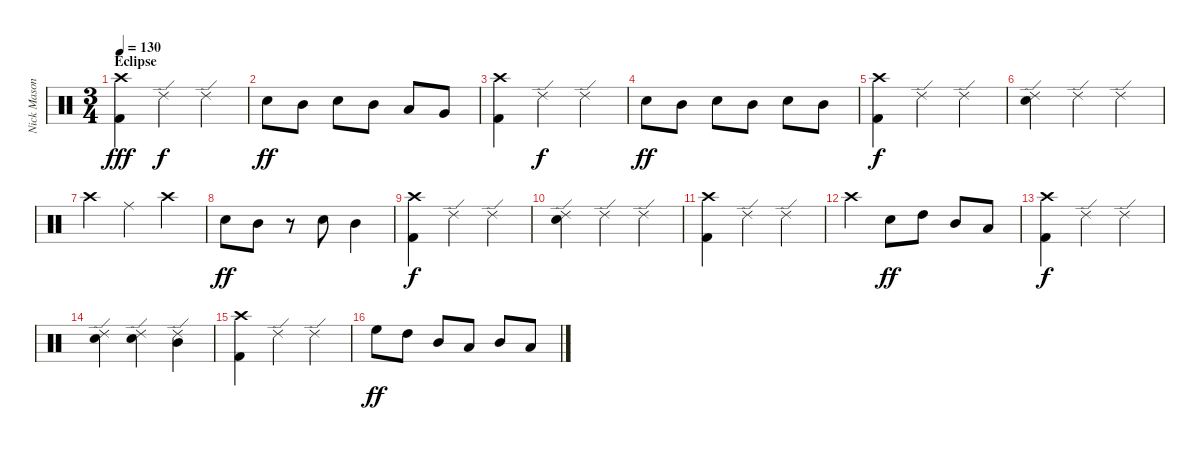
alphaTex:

\track ("Nick Mason" "Nick Mason") {instrument percussion}
\staff {score}
\articulation defaults
\ts (3 4)
\section ("" "Eclipse")
\tempo 130
\clef neutral
\ks c
("Crash high (hit)" "Kick (hit) 2").4{dy fff} "Ride (edge) 2".4{dy f} "Ride (edge) 2".4 |
"Snare (hit) 2".8{dy ff} "Mid Tom (hit)".8 "Snare (hit) 2".8 "Mid Tom (hit)".8 "Low Tom (hit)".8 "Very Low Tom (hit)".8 |
("Crash high (hit)" "Kick (hit) 2").4 "Ride (edge) 2".4{dy f} "Ride (edge) 2".4 |
"Snare (hit) 2".8{dy ff} "Mid Tom (hit)".8 "Snare (hit) 2".8 "Mid Tom (hit)".8 "Snare (hit) 2".8 "Mid Tom (hit)".8 |
("Crash high (hit)" "Kick (hit) 2").4{dy f} "Ride (edge) 2".4 "Ride (edge) 2".4 |
("Snare (hit) 2" "Ride (edge) 2").4 "Ride (edge) 2".4 "Ride (edge) 2".4 |
"Crash high (hit)".4 "Ride (middle)".4 "Crash high (hit)".4 |
"Snare (hit) 2".8{dy ff} "Mid Tom (hit)".8 r.8 "Snare (hit) 2".8 "Mid Tom (hit)".4 |
("Crash high (hit)" "Kick (hit) 2").4{dy f} "Ride (edge) 2".4 "Ride (edge) 2".4 |
("Snare (hit) 2" "Ride (edge) 2").4 "Ride (edge) 2".4 "Ride (edge) 2".4 |
("Crash high (hit)" "Kick (hit) 2").4 "Ride (edge) 2".4 "Ride (edge) 2".4 |
"Crash high (hit)".4 "Snare (hit) 2".8{dy ff} "High Tom (hit)".8 "Mid Tom (hit)".8 "Low Tom (hit)".8 |
("Crash high (hit)" "Kick (hit) 2").4{dy f} "Ride (edge) 2".4 "Ride (edge) 2".4 |
("Snare (hit) 2" "Ride (edge) 2").4 ("Snare (hit) 2" "Ride (edge) 2").4 ("Mid Tom (hit)" "Ride (edge) 2").4 |
("Crash high (hit)" "Kick (hit) 2").4 "Ride (edge) 2".4 "Ride (edge) 2".4 |
"High Floor Tom (hit)".8{dy ff} "High Tom (hit)".8 "Mid Tom (hit)".8 "Low Tom (hit)".8 "Mid Tom (hit)".8 "Low Tom (hit)".8
